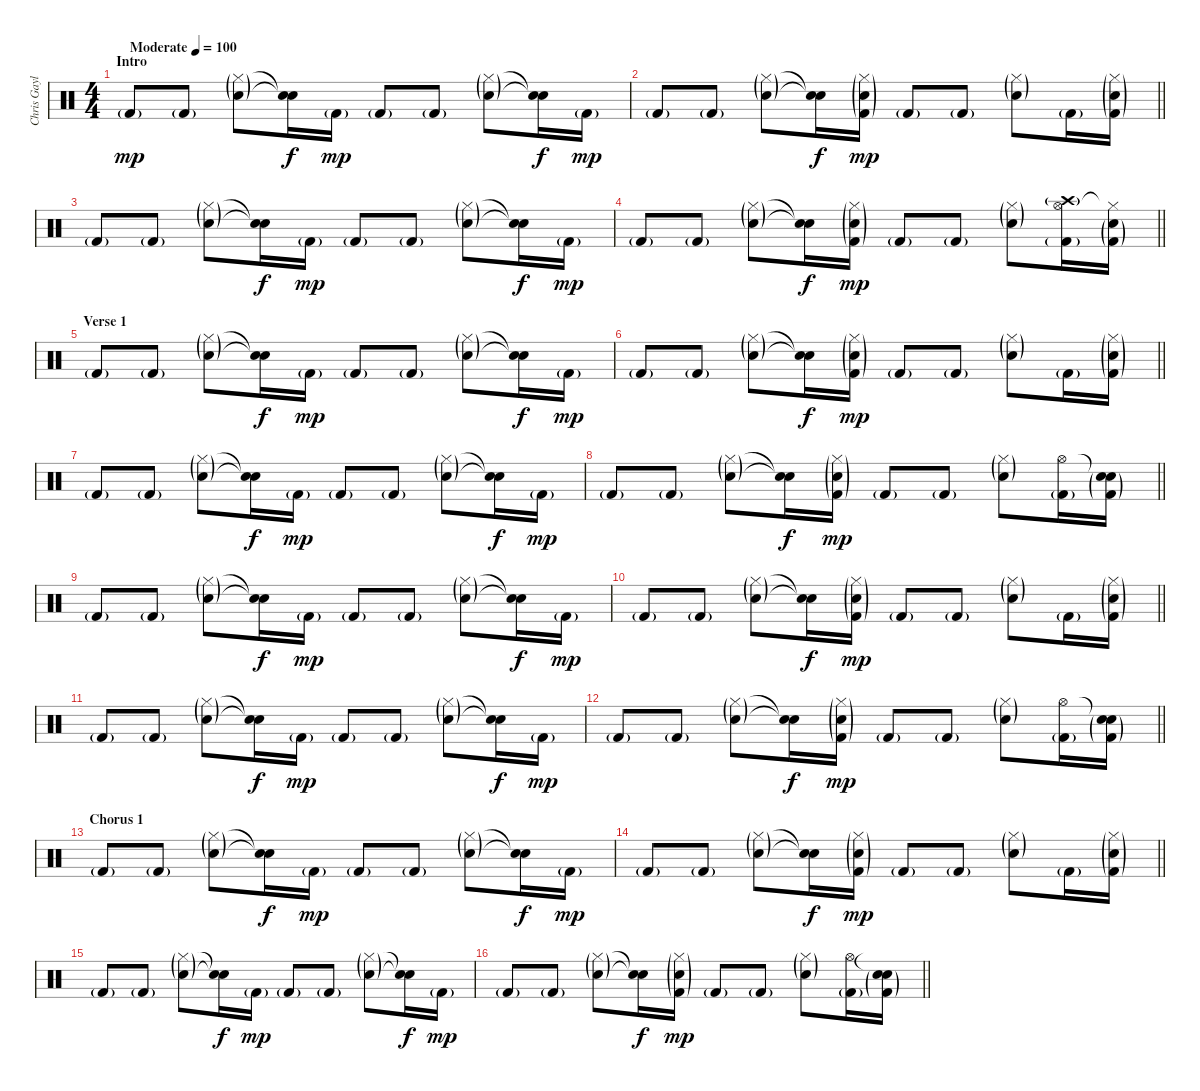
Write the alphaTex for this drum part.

\track ("Chris Gaylor (Drums)" "Chris Gayl") {instrument percussion}
\staff {score}
\articulation defaults
\ts (4 4)
\section ("" "Intro")
\tempo (100 "Moderate")
\clef neutral
\ks c "Kick (hit) 2"{g}.8{dy mp} "Kick (hit) 2"{g}.8
("Hi-Hat (closed)"{g} "Snare (hit) 2"{g}).8 ("Snare (hit)"{t} "Snare (hit)"{t}).16{dy f} "Kick (hit) 2"{g}.16{dy mp} "Kick (hit) 2"{g}.8 "Kick (hit) 2"{g}.8 ("Hi-Hat (closed)"{g} "Snare (hit) 2"{g}).8 ("Snare (hit)"{t} "Snare (hit)"{t}).16{dy f} "Kick (hit) 2"{g}.16{dy mp} |
\barLineRight lightlight "Kick (hit) 2"{g}.8 "Kick (hit) 2"{g}.8
("Hi-Hat (closed)"{g} "Snare (hit) 2"{g}).8 ("Snare (hit)"{t} "Snare (hit)"{t}).16{dy f} ("Hi-Hat (closed)"{g} "Snare (hit) 2"{g} "Kick (hit) 2"{g}).16{dy mp} "Kick (hit) 2"{g}.8 "Kick (hit) 2"{g}.8 ("Hi-Hat (closed)"{g} "Snare (hit) 2"{g}).8 "Kick (hit) 2"{g}.16 ("Hi-Hat (closed)"{g} "Snare (hit) 2"{g} "Kick (hit) 2"{g}).16 |
"Kick (hit) 2"{g}.8 "Kick (hit) 2"{g}.8 ("Hi-Hat (closed)"{g} "Snare (hit) 2"{g}).8 ("Snare (hit)"{t} "Snare (hit)"{t}).16{dy f} "Kick (hit) 2"{g}.16{dy mp} "Kick (hit) 2"{g}.8 "Kick (hit) 2"{g}.8 ("Hi-Hat (closed)"{g} "Snare (hit) 2"{g}).8 ("Snare (hit)"{t} "Snare (hit)"{t}).16{dy f} "Kick (hit) 2"{g}.16{dy mp} |
\barLineRight lightlight "Kick (hit) 2"{g}.8 "Kick (hit) 2"{g}.8
("Hi-Hat (closed)"{g} "Snare (hit) 2"{g}).8 ("Snare (hit)"{t} "Snare (hit)"{t}).16{dy f} ("Hi-Hat (closed)"{g} "Snare (hit) 2"{g} "Kick (hit) 2"{g}).16{dy mp} "Kick (hit) 2"{g}.8 "Kick (hit) 2"{g}.8 ("Hi-Hat (closed)"{g} "Snare (hit) 2"{g}).8 ("Hi-Hat (open)" "Crash high (hit)"{g} "Kick (hit) 2"{g}).16 ("Hi-Hat (closed)"{t} "Snare (hit) 2"{g} "Kick (hit) 2"{g}).16 |
\section ("" "Verse 1")
"Kick (hit) 2"{g}.8 "Kick (hit) 2"{g}.8 ("Hi-Hat (closed)"{g} "Snare (hit) 2"{g}).8 ("Snare (hit)"{t} "Snare (hit)"{t}).16{dy f} "Kick (hit) 2"{g}.16{dy mp} "Kick (hit) 2"{g}.8 "Kick (hit) 2"{g}.8 ("Hi-Hat (closed)"{g} "Snare (hit) 2"{g}).8 ("Snare (hit)"{t} "Snare (hit)"{t}).16{dy f} "Kick (hit) 2"{g}.16{dy mp} |
\barLineRight lightlight "Kick (hit) 2"{g}.8 "Kick (hit) 2"{g}.8
("Hi-Hat (closed)"{g} "Snare (hit) 2"{g}).8 ("Snare (hit)"{t} "Snare (hit)"{t}).16{dy f} ("Hi-Hat (closed)"{g} "Snare (hit) 2"{g} "Kick (hit) 2"{g}).16{dy mp} "Kick (hit) 2"{g}.8 "Kick (hit) 2"{g}.8 ("Hi-Hat (closed)"{g} "Snare (hit) 2"{g}).8 "Kick (hit) 2"{g}.16 ("Hi-Hat (closed)"{g} "Snare (hit) 2"{g} "Kick (hit) 2"{g}).16 |
"Kick (hit) 2"{g}.8 "Kick (hit) 2"{g}.8 ("Hi-Hat (closed)"{g} "Snare (hit) 2"{g}).8 ("Snare (hit)"{t} "Snare (hit)"{t}).16{dy f} "Kick (hit) 2"{g}.16{dy mp} "Kick (hit) 2"{g}.8 "Kick (hit) 2"{g}.8 ("Hi-Hat (closed)"{g} "Snare (hit) 2"{g}).8 ("Snare (hit)"{t} "Snare (hit)"{t}).16{dy f} "Kick (hit) 2"{g}.16{dy mp} |
\barLineRight lightlight "Kick (hit) 2"{g}.8 "Kick (hit) 2"{g}.8
("Hi-Hat (closed)"{g} "Snare (hit) 2"{g}).8 ("Snare (hit)"{t} "Snare (hit)"{t}).16{dy f} ("Hi-Hat (closed)"{g} "Snare (hit) 2"{g} "Kick (hit) 2"{g}).16{dy mp} "Kick (hit) 2"{g}.8 "Kick (hit) 2"{g}.8 ("Hi-Hat (closed)"{g} "Snare (hit) 2"{g}).8 ("Hi-Hat (open)" "Kick (hit) 2"{g}).16 ("Snare (hit)"{t} "Snare (hit) 2"{g} "Kick (hit) 2"{g}).16 |
"Kick (hit) 2"{g}.8 "Kick (hit) 2"{g}.8 ("Hi-Hat (closed)"{g} "Snare (hit) 2"{g}).8 ("Snare (hit)"{t} "Snare (hit)"{t}).16{dy f} "Kick (hit) 2"{g}.16{dy mp} "Kick (hit) 2"{g}.8 "Kick (hit) 2"{g}.8 ("Hi-Hat (closed)"{g} "Snare (hit) 2"{g}).8 ("Snare (hit)"{t} "Snare (hit)"{t}).16{dy f} "Kick (hit) 2"{g}.16{dy mp} |
\barLineRight lightlight "Kick (hit) 2"{g}.8 "Kick (hit) 2"{g}.8
("Hi-Hat (closed)"{g} "Snare (hit) 2"{g}).8 ("Snare (hit)"{t} "Snare (hit)"{t}).16{dy f} ("Hi-Hat (closed)"{g} "Snare (hit) 2"{g} "Kick (hit) 2"{g}).16{dy mp} "Kick (hit) 2"{g}.8 "Kick (hit) 2"{g}.8 ("Hi-Hat (closed)"{g} "Snare (hit) 2"{g}).8 "Kick (hit) 2"{g}.16 ("Hi-Hat (closed)"{g} "Snare (hit) 2"{g} "Kick (hit) 2"{g}).16 |
"Kick (hit) 2"{g}.8 "Kick (hit) 2"{g}.8 ("Hi-Hat (closed)"{g} "Snare (hit) 2"{g}).8 ("Snare (hit)"{t} "Snare (hit)"{t}).16{dy f} "Kick (hit) 2"{g}.16{dy mp} "Kick (hit) 2"{g}.8 "Kick (hit) 2"{g}.8 ("Hi-Hat (closed)"{g} "Snare (hit) 2"{g}).8 ("Snare (hit)"{t} "Snare (hit)"{t}).16{dy f} "Kick (hit) 2"{g}.16{dy mp} |
\barLineRight lightlight "Kick (hit) 2"{g}.8 "Kick (hit) 2"{g}.8
("Hi-Hat (closed)"{g} "Snare (hit) 2"{g}).8 ("Snare (hit)"{t} "Snare (hit)"{t}).16{dy f} ("Hi-Hat (closed)"{g} "Snare (hit) 2"{g} "Kick (hit) 2"{g}).16{dy mp} "Kick (hit) 2"{g}.8 "Kick (hit) 2"{g}.8 ("Hi-Hat (closed)"{g} "Snare (hit) 2"{g}).8 ("Hi-Hat (open)" "Kick (hit) 2"{g}).16 ("Snare (hit)"{t} "Snare (hit) 2"{g} "Kick (hit) 2"{g}).16 |
\section ("" "Chorus 1")
"Kick (hit) 2"{g}.8 "Kick (hit) 2"{g}.8 ("Hi-Hat (closed)"{g} "Snare (hit) 2"{g}).8 ("Snare (hit)"{t} "Snare (hit)"{t}).16{dy f} "Kick (hit) 2"{g}.16{dy mp} "Kick (hit) 2"{g}.8 "Kick (hit) 2"{g}.8 ("Hi-Hat (closed)"{g} "Snare (hit) 2"{g}).8 ("Snare (hit)"{t} "Snare (hit)"{t}).16{dy f} "Kick (hit) 2"{g}.16{dy mp} |
\barLineRight lightlight "Kick (hit) 2"{g}.8 "Kick (hit) 2"{g}.8
("Hi-Hat (closed)"{g} "Snare (hit) 2"{g}).8 ("Snare (hit)"{t} "Snare (hit)"{t}).16{dy f} ("Hi-Hat (closed)"{g} "Snare (hit) 2"{g} "Kick (hit) 2"{g}).16{dy mp} "Kick (hit) 2"{g}.8 "Kick (hit) 2"{g}.8 ("Hi-Hat (closed)"{g} "Snare (hit) 2"{g}).8 "Kick (hit) 2"{g}.16 ("Hi-Hat (closed)"{g} "Snare (hit) 2"{g} "Kick (hit) 2"{g}).16 |
"Kick (hit) 2"{g}.8 "Kick (hit) 2"{g}.8 ("Hi-Hat (closed)"{g} "Snare (hit) 2"{g}).8 ("Snare (hit)"{t} "Snare (hit)"{t}).16{dy f} "Kick (hit) 2"{g}.16{dy mp} "Kick (hit) 2"{g}.8 "Kick (hit) 2"{g}.8 ("Hi-Hat (closed)"{g} "Snare (hit) 2"{g}).8 ("Snare (hit)"{t} "Snare (hit)"{t}).16{dy f} "Kick (hit) 2"{g}.16{dy mp} |
\barLineRight lightlight "Kick (hit) 2"{g}.8 "Kick (hit) 2"{g}.8
("Hi-Hat (closed)"{g} "Snare (hit) 2"{g}).8 ("Snare (hit)"{t} "Snare (hit)"{t}).16{dy f} ("Hi-Hat (closed)"{g} "Snare (hit) 2"{g} "Kick (hit) 2"{g}).16{dy mp} "Kick (hit) 2"{g}.8 "Kick (hit) 2"{g}.8 ("Hi-Hat (closed)"{g} "Snare (hit) 2"{g}).8 ("Hi-Hat (open)" "Kick (hit) 2"{g}).16 ("Snare (hit)"{t} "Snare (hit) 2"{g} "Kick (hit) 2"{g}).16
